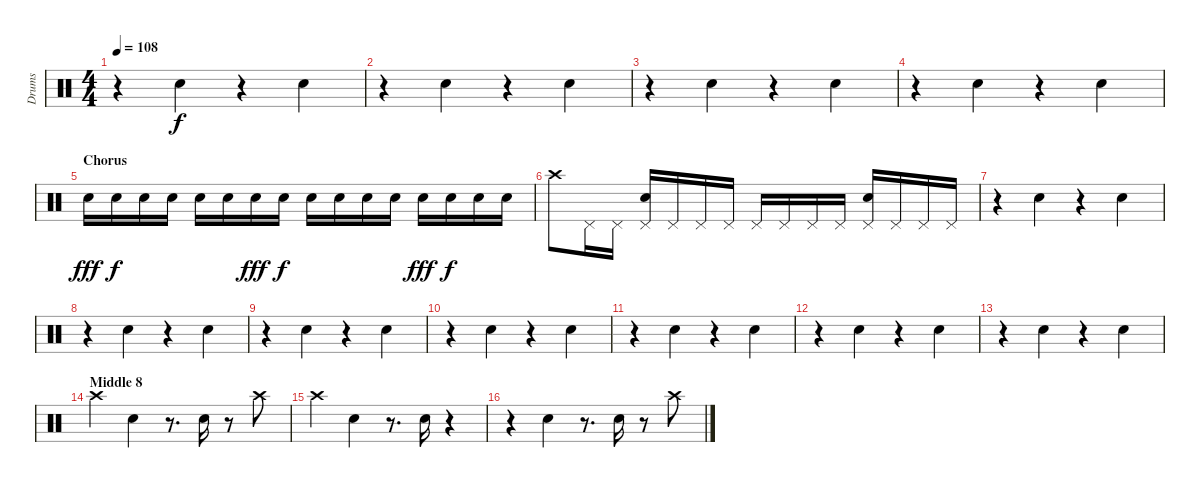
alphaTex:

\track ("Drums" "Drums") {instrument percussion}
\staff {score}
\articulation defaults
\ts (4 4)
\tempo 108
\clef neutral
\ks c
r.4{dy f} "Snare (hit) 2".4 r.4 "Snare (hit) 2".4 |
r.4 "Snare (hit) 2".4 r.4 "Snare (hit) 2".4 |
r.4 "Snare (hit) 2".4 r.4 "Snare (hit) 2".4 |
r.4 "Snare (hit) 2".4 r.4 "Snare (hit) 2".4 |
\section ("" "Chorus")
"Snare (hit) 2".16{dy fff} "Snare (hit) 2".16{dy f} "Snare (hit) 2".16 "Snare (hit) 2".16 "Snare (hit) 2".16 "Snare (hit) 2".16 "Snare (hit) 2".16{dy fff} "Snare (hit) 2".16{dy f} "Snare (hit) 2".16 "Snare (hit) 2".16 "Snare (hit) 2".16 "Snare (hit) 2".16 "Snare (hit) 2".16{dy fff} "Snare (hit) 2".16{dy f} "Snare (hit) 2".16 "Snare (hit) 2".16 |
"Crash high (hit)".8 "Pedal Hi-Hat (hit)".16 "Pedal Hi-Hat (hit)".16 ("Pedal Hi-Hat (hit)" "Snare (hit) 2").16 "Pedal Hi-Hat (hit)".16 "Pedal Hi-Hat (hit)".16 "Pedal Hi-Hat (hit)".16 "Pedal Hi-Hat (hit)".16 "Pedal Hi-Hat (hit)".16 "Pedal Hi-Hat (hit)".16 "Pedal Hi-Hat (hit)".16 ("Pedal Hi-Hat (hit)" "Snare (hit) 2").16 "Pedal Hi-Hat (hit)".16 "Pedal Hi-Hat (hit)".16 "Pedal Hi-Hat (hit)".16 |
r.4 "Snare (hit) 2".4 r.4 "Snare (hit) 2".4 |
r.4 "Snare (hit) 2".4 r.4 "Snare (hit) 2".4 |
r.4 "Snare (hit) 2".4 r.4 "Snare (hit) 2".4 |
r.4 "Snare (hit) 2".4 r.4 "Snare (hit) 2".4 |
r.4 "Snare (hit) 2".4 r.4 "Snare (hit) 2".4 |
r.4 "Snare (hit) 2".4 r.4 "Snare (hit) 2".4 |
r.4 "Snare (hit) 2".4 r.4 "Snare (hit) 2".4 |
\section ("" "Middle 8")
"Crash high (hit)".4 "Snare (hit) 2".4 r.8{d} "Snare (hit) 2".16 r.8 "Crash high (hit)".8 |
"Crash high (hit)".4 "Snare (hit) 2".4 r.8{d} "Snare (hit) 2".16 r.4 |
r.4 "Snare (hit) 2".4 r.8{d} "Snare (hit) 2".16 r.8 "Crash high (hit)".8
